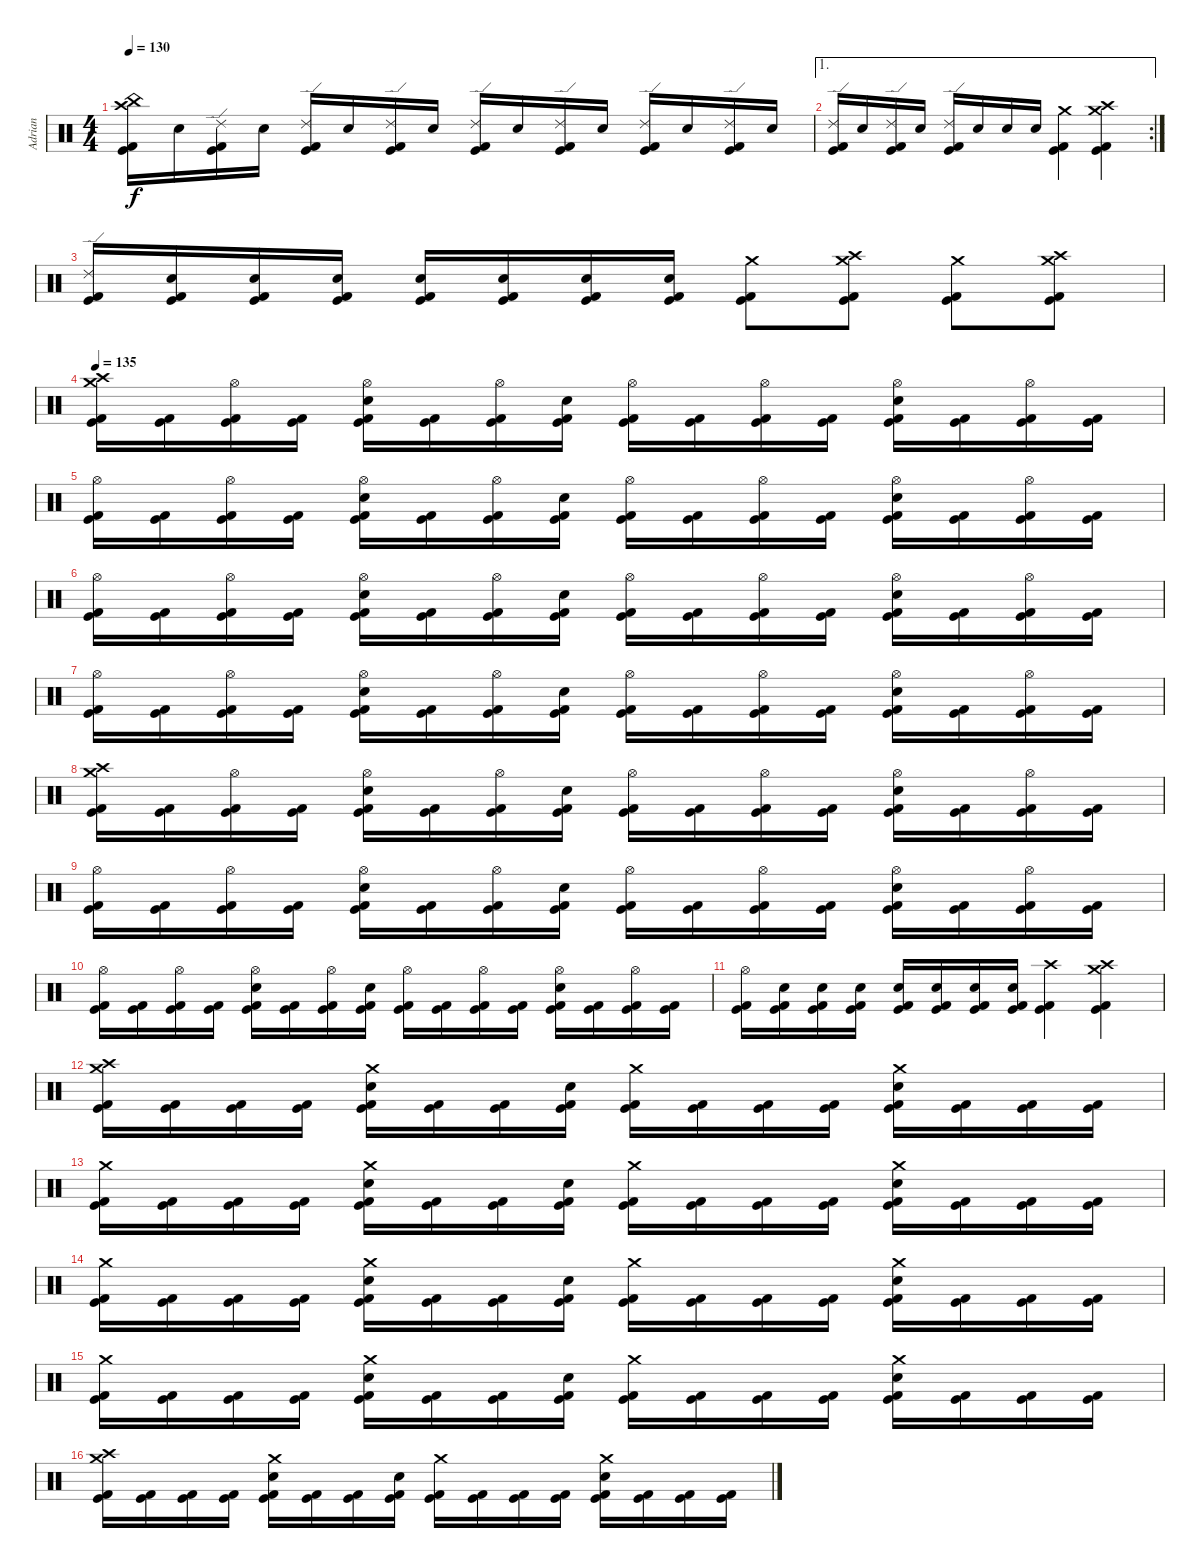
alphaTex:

\track ("Adrian" "Adrian") {instrument percussion}
\staff {score}
\articulation defaults
\ts (4 4)
\tempo 130
\clef neutral
\ks c
("China (hit)" "Crash high (hit)" "Kick (hit)" "Kick (hit) 2").16{dy f} "Electric Snare (hit)".16 ("Ride (edge) 2" "Kick (hit)" "Kick (hit) 2").16 "Electric Snare (hit)".16 ("Ride (edge) 2" "Kick (hit)" "Kick (hit) 2").16 "Electric Snare (hit)".16 ("Ride (edge) 2" "Kick (hit)" "Kick (hit) 2").16 "Electric Snare (hit)".16 ("Ride (edge) 2" "Kick (hit)" "Kick (hit) 2").16 "Electric Snare (hit)".16 ("Ride (edge) 2" "Kick (hit)" "Kick (hit) 2").16 "Electric Snare (hit)".16 ("Ride (edge) 2" "Kick (hit)" "Kick (hit) 2").16 "Electric Snare (hit)".16 ("Ride (edge) 2" "Kick (hit)" "Kick (hit) 2").16 "Electric Snare (hit)".16 |
\ae 1
\rc 2
("Ride (edge) 2" "Kick (hit)" "Kick (hit) 2").16 "Electric Snare (hit)".16 ("Ride (edge) 2" "Kick (hit)" "Kick (hit) 2").16 "Electric Snare (hit)".16 ("Ride (edge) 2" "Kick (hit)" "Kick (hit) 2").16 "Electric Snare (hit)".16 "Electric Snare (hit)".16 "Electric Snare (hit)".16 ("Crash medium (hit)" "Kick (hit)" "Kick (hit) 2").4 ("Crash medium (hit)" "Crash high (hit)" "Kick (hit)" "Kick (hit) 2").4 |
("Ride (edge) 2" "Kick (hit)" "Kick (hit) 2").16 ("Electric Snare (hit)" "Kick (hit)" "Kick (hit) 2").16 ("Electric Snare (hit)" "Kick (hit)" "Kick (hit) 2").16 ("Electric Snare (hit)" "Kick (hit)" "Kick (hit) 2").16 ("Electric Snare (hit)" "Kick (hit)" "Kick (hit) 2").16 ("Electric Snare (hit)" "Kick (hit)" "Kick (hit) 2").16 ("Electric Snare (hit)" "Kick (hit)" "Kick (hit) 2").16 ("Electric Snare (hit)" "Kick (hit)" "Kick (hit) 2").16 ("Crash medium (hit)" "Kick (hit)" "Kick (hit) 2").8 ("Crash medium (hit)" "Crash high (hit)" "Kick (hit)" "Kick (hit) 2").8 ("Crash medium (hit)" "Kick (hit)" "Kick (hit) 2").8 ("Crash medium (hit)" "Crash high (hit)" "Kick (hit)" "Kick (hit) 2").8 |
\tempo 135
("Crash medium (hit)" "Crash high (hit)" "Kick (hit)" "Kick (hit) 2").16 ("Kick (hit)" "Kick (hit) 2").16 ("Hi-Hat (open)" "Kick (hit)" "Kick (hit) 2").16 ("Kick (hit)" "Kick (hit) 2").16 ("Hi-Hat (open)" "Electric Snare (hit)" "Kick (hit)" "Kick (hit) 2").16 ("Kick (hit)" "Kick (hit) 2").16 ("Hi-Hat (open)" "Kick (hit)" "Kick (hit) 2").16 ("Electric Snare (hit)" "Kick (hit)" "Kick (hit) 2").16 ("Hi-Hat (open)" "Kick (hit)" "Kick (hit) 2").16 ("Kick (hit)" "Kick (hit) 2").16 ("Hi-Hat (open)" "Kick (hit)" "Kick (hit) 2").16 ("Kick (hit)" "Kick (hit) 2").16 ("Hi-Hat (open)" "Electric Snare (hit)" "Kick (hit)" "Kick (hit) 2").16 ("Kick (hit)" "Kick (hit) 2").16 ("Hi-Hat (open)" "Kick (hit)" "Kick (hit) 2").16 ("Kick (hit)" "Kick (hit) 2").16 |
("Hi-Hat (open)" "Kick (hit)" "Kick (hit) 2").16 ("Kick (hit)" "Kick (hit) 2").16 ("Hi-Hat (open)" "Kick (hit)" "Kick (hit) 2").16 ("Kick (hit)" "Kick (hit) 2").16 ("Hi-Hat (open)" "Electric Snare (hit)" "Kick (hit)" "Kick (hit) 2").16 ("Kick (hit)" "Kick (hit) 2").16 ("Hi-Hat (open)" "Kick (hit)" "Kick (hit) 2").16 ("Electric Snare (hit)" "Kick (hit)" "Kick (hit) 2").16 ("Hi-Hat (open)" "Kick (hit)" "Kick (hit) 2").16 ("Kick (hit)" "Kick (hit) 2").16 ("Hi-Hat (open)" "Kick (hit)" "Kick (hit) 2").16 ("Kick (hit)" "Kick (hit) 2").16 ("Hi-Hat (open)" "Electric Snare (hit)" "Kick (hit)" "Kick (hit) 2").16 ("Kick (hit)" "Kick (hit) 2").16 ("Hi-Hat (open)" "Kick (hit)" "Kick (hit) 2").16 ("Kick (hit)" "Kick (hit) 2").16 |
("Hi-Hat (open)" "Kick (hit)" "Kick (hit) 2").16 ("Kick (hit)" "Kick (hit) 2").16 ("Hi-Hat (open)" "Kick (hit)" "Kick (hit) 2").16 ("Kick (hit)" "Kick (hit) 2").16 ("Hi-Hat (open)" "Electric Snare (hit)" "Kick (hit)" "Kick (hit) 2").16 ("Kick (hit)" "Kick (hit) 2").16 ("Hi-Hat (open)" "Kick (hit)" "Kick (hit) 2").16 ("Electric Snare (hit)" "Kick (hit)" "Kick (hit) 2").16 ("Hi-Hat (open)" "Kick (hit)" "Kick (hit) 2").16 ("Kick (hit)" "Kick (hit) 2").16 ("Hi-Hat (open)" "Kick (hit)" "Kick (hit) 2").16 ("Kick (hit)" "Kick (hit) 2").16 ("Hi-Hat (open)" "Electric Snare (hit)" "Kick (hit)" "Kick (hit) 2").16 ("Kick (hit)" "Kick (hit) 2").16 ("Hi-Hat (open)" "Kick (hit)" "Kick (hit) 2").16 ("Kick (hit)" "Kick (hit) 2").16 |
("Hi-Hat (open)" "Kick (hit)" "Kick (hit) 2").16 ("Kick (hit)" "Kick (hit) 2").16 ("Hi-Hat (open)" "Kick (hit)" "Kick (hit) 2").16 ("Kick (hit)" "Kick (hit) 2").16 ("Hi-Hat (open)" "Electric Snare (hit)" "Kick (hit)" "Kick (hit) 2").16 ("Kick (hit)" "Kick (hit) 2").16 ("Hi-Hat (open)" "Kick (hit)" "Kick (hit) 2").16 ("Electric Snare (hit)" "Kick (hit)" "Kick (hit) 2").16 ("Hi-Hat (open)" "Kick (hit)" "Kick (hit) 2").16 ("Kick (hit)" "Kick (hit) 2").16 ("Hi-Hat (open)" "Kick (hit)" "Kick (hit) 2").16 ("Kick (hit)" "Kick (hit) 2").16 ("Hi-Hat (open)" "Electric Snare (hit)" "Kick (hit)" "Kick (hit) 2").16 ("Kick (hit)" "Kick (hit) 2").16 ("Hi-Hat (open)" "Kick (hit)" "Kick (hit) 2").16 ("Kick (hit)" "Kick (hit) 2").16 |
("Crash medium (hit)" "Crash high (hit)" "Kick (hit)" "Kick (hit) 2").16 ("Kick (hit)" "Kick (hit) 2").16 ("Hi-Hat (open)" "Kick (hit)" "Kick (hit) 2").16 ("Kick (hit)" "Kick (hit) 2").16 ("Hi-Hat (open)" "Electric Snare (hit)" "Kick (hit)" "Kick (hit) 2").16 ("Kick (hit)" "Kick (hit) 2").16 ("Hi-Hat (open)" "Kick (hit)" "Kick (hit) 2").16 ("Electric Snare (hit)" "Kick (hit)" "Kick (hit) 2").16 ("Hi-Hat (open)" "Kick (hit)" "Kick (hit) 2").16 ("Kick (hit)" "Kick (hit) 2").16 ("Hi-Hat (open)" "Kick (hit)" "Kick (hit) 2").16 ("Kick (hit)" "Kick (hit) 2").16 ("Hi-Hat (open)" "Electric Snare (hit)" "Kick (hit)" "Kick (hit) 2").16 ("Kick (hit)" "Kick (hit) 2").16 ("Hi-Hat (open)" "Kick (hit)" "Kick (hit) 2").16 ("Kick (hit)" "Kick (hit) 2").16 |
("Hi-Hat (open)" "Kick (hit)" "Kick (hit) 2").16 ("Kick (hit)" "Kick (hit) 2").16 ("Hi-Hat (open)" "Kick (hit)" "Kick (hit) 2").16 ("Kick (hit)" "Kick (hit) 2").16 ("Hi-Hat (open)" "Electric Snare (hit)" "Kick (hit)" "Kick (hit) 2").16 ("Kick (hit)" "Kick (hit) 2").16 ("Hi-Hat (open)" "Kick (hit)" "Kick (hit) 2").16 ("Electric Snare (hit)" "Kick (hit)" "Kick (hit) 2").16 ("Hi-Hat (open)" "Kick (hit)" "Kick (hit) 2").16 ("Kick (hit)" "Kick (hit) 2").16 ("Hi-Hat (open)" "Kick (hit)" "Kick (hit) 2").16 ("Kick (hit)" "Kick (hit) 2").16 ("Hi-Hat (open)" "Electric Snare (hit)" "Kick (hit)" "Kick (hit) 2").16 ("Kick (hit)" "Kick (hit) 2").16 ("Hi-Hat (open)" "Kick (hit)" "Kick (hit) 2").16 ("Kick (hit)" "Kick (hit) 2").16 |
("Hi-Hat (open)" "Kick (hit)" "Kick (hit) 2").16 ("Kick (hit)" "Kick (hit) 2").16 ("Hi-Hat (open)" "Kick (hit)" "Kick (hit) 2").16 ("Kick (hit)" "Kick (hit) 2").16 ("Hi-Hat (open)" "Electric Snare (hit)" "Kick (hit)" "Kick (hit) 2").16 ("Kick (hit)" "Kick (hit) 2").16 ("Hi-Hat (open)" "Kick (hit)" "Kick (hit) 2").16 ("Electric Snare (hit)" "Kick (hit)" "Kick (hit) 2").16 ("Hi-Hat (open)" "Kick (hit)" "Kick (hit) 2").16 ("Kick (hit)" "Kick (hit) 2").16 ("Hi-Hat (open)" "Kick (hit)" "Kick (hit) 2").16 ("Kick (hit)" "Kick (hit) 2").16 ("Hi-Hat (open)" "Electric Snare (hit)" "Kick (hit)" "Kick (hit) 2").16 ("Kick (hit)" "Kick (hit) 2").16 ("Hi-Hat (open)" "Kick (hit)" "Kick (hit) 2").16 ("Kick (hit)" "Kick (hit) 2").16 |
("Hi-Hat (open)" "Kick (hit)" "Kick (hit) 2").16 ("Electric Snare (hit)" "Kick (hit)" "Kick (hit) 2").16 ("Electric Snare (hit)" "Kick (hit)" "Kick (hit) 2").16 ("Electric Snare (hit)" "Kick (hit)" "Kick (hit) 2").16 ("Electric Snare (hit)" "Kick (hit)" "Kick (hit) 2").16 ("Electric Snare (hit)" "Kick (hit)" "Kick (hit) 2").16 ("Electric Snare (hit)" "Kick (hit)" "Kick (hit) 2").16 ("Electric Snare (hit)" "Kick (hit)" "Kick (hit) 2").16 ("Crash high (hit)" "Kick (hit)" "Kick (hit) 2").4 ("Crash high (hit)" "Crash medium (hit)" "Kick (hit)" "Kick (hit) 2").4 |
("Crash medium (hit)" "Crash high (hit)" "Kick (hit)" "Kick (hit) 2").16 ("Kick (hit)" "Kick (hit) 2").16 ("Kick (hit)" "Kick (hit) 2").16 ("Kick (hit)" "Kick (hit) 2").16 ("Crash medium (hit)" "Electric Snare (hit)" "Kick (hit)" "Kick (hit) 2").16 ("Kick (hit)" "Kick (hit) 2").16 ("Kick (hit)" "Kick (hit) 2").16 ("Electric Snare (hit)" "Kick (hit)" "Kick (hit) 2").16 ("Crash medium (hit)" "Kick (hit)" "Kick (hit) 2").16 ("Kick (hit)" "Kick (hit) 2").16 ("Kick (hit)" "Kick (hit) 2").16 ("Kick (hit)" "Kick (hit) 2").16 ("Crash medium (hit)" "Electric Snare (hit)" "Kick (hit)" "Kick (hit) 2").16 ("Kick (hit)" "Kick (hit) 2").16 ("Kick (hit)" "Kick (hit) 2").16 ("Kick (hit)" "Kick (hit) 2").16 |
("Crash medium (hit)" "Kick (hit)" "Kick (hit) 2").16 ("Kick (hit)" "Kick (hit) 2").16 ("Kick (hit)" "Kick (hit) 2").16 ("Kick (hit)" "Kick (hit) 2").16 ("Crash medium (hit)" "Electric Snare (hit)" "Kick (hit)" "Kick (hit) 2").16 ("Kick (hit)" "Kick (hit) 2").16 ("Kick (hit)" "Kick (hit) 2").16 ("Electric Snare (hit)" "Kick (hit)" "Kick (hit) 2").16 ("Crash medium (hit)" "Kick (hit)" "Kick (hit) 2").16 ("Kick (hit)" "Kick (hit) 2").16 ("Kick (hit)" "Kick (hit) 2").16 ("Kick (hit)" "Kick (hit) 2").16 ("Crash medium (hit)" "Electric Snare (hit)" "Kick (hit)" "Kick (hit) 2").16 ("Kick (hit)" "Kick (hit) 2").16 ("Kick (hit)" "Kick (hit) 2").16 ("Kick (hit)" "Kick (hit) 2").16 |
("Crash medium (hit)" "Kick (hit)" "Kick (hit) 2").16 ("Kick (hit)" "Kick (hit) 2").16 ("Kick (hit)" "Kick (hit) 2").16 ("Kick (hit)" "Kick (hit) 2").16 ("Crash medium (hit)" "Electric Snare (hit)" "Kick (hit)" "Kick (hit) 2").16 ("Kick (hit)" "Kick (hit) 2").16 ("Kick (hit)" "Kick (hit) 2").16 ("Electric Snare (hit)" "Kick (hit)" "Kick (hit) 2").16 ("Crash medium (hit)" "Kick (hit)" "Kick (hit) 2").16 ("Kick (hit)" "Kick (hit) 2").16 ("Kick (hit)" "Kick (hit) 2").16 ("Kick (hit)" "Kick (hit) 2").16 ("Crash medium (hit)" "Electric Snare (hit)" "Kick (hit)" "Kick (hit) 2").16 ("Kick (hit)" "Kick (hit) 2").16 ("Kick (hit)" "Kick (hit) 2").16 ("Kick (hit)" "Kick (hit) 2").16 |
("Crash medium (hit)" "Kick (hit)" "Kick (hit) 2").16 ("Kick (hit)" "Kick (hit) 2").16 ("Kick (hit)" "Kick (hit) 2").16 ("Kick (hit)" "Kick (hit) 2").16 ("Crash medium (hit)" "Electric Snare (hit)" "Kick (hit)" "Kick (hit) 2").16 ("Kick (hit)" "Kick (hit) 2").16 ("Kick (hit)" "Kick (hit) 2").16 ("Electric Snare (hit)" "Kick (hit)" "Kick (hit) 2").16 ("Crash medium (hit)" "Kick (hit)" "Kick (hit) 2").16 ("Kick (hit)" "Kick (hit) 2").16 ("Kick (hit)" "Kick (hit) 2").16 ("Kick (hit)" "Kick (hit) 2").16 ("Crash medium (hit)" "Electric Snare (hit)" "Kick (hit)" "Kick (hit) 2").16 ("Kick (hit)" "Kick (hit) 2").16 ("Kick (hit)" "Kick (hit) 2").16 ("Kick (hit)" "Kick (hit) 2").16 |
("Crash medium (hit)" "Crash high (hit)" "Kick (hit)" "Kick (hit) 2").16 ("Kick (hit)" "Kick (hit) 2").16 ("Kick (hit)" "Kick (hit) 2").16 ("Kick (hit)" "Kick (hit) 2").16 ("Crash medium (hit)" "Electric Snare (hit)" "Kick (hit)" "Kick (hit) 2").16 ("Kick (hit)" "Kick (hit) 2").16 ("Kick (hit)" "Kick (hit) 2").16 ("Electric Snare (hit)" "Kick (hit)" "Kick (hit) 2").16 ("Crash medium (hit)" "Kick (hit)" "Kick (hit) 2").16 ("Kick (hit)" "Kick (hit) 2").16 ("Kick (hit)" "Kick (hit) 2").16 ("Kick (hit)" "Kick (hit) 2").16 ("Crash medium (hit)" "Electric Snare (hit)" "Kick (hit)" "Kick (hit) 2").16 ("Kick (hit)" "Kick (hit) 2").16 ("Kick (hit)" "Kick (hit) 2").16 ("Kick (hit)" "Kick (hit) 2").16
